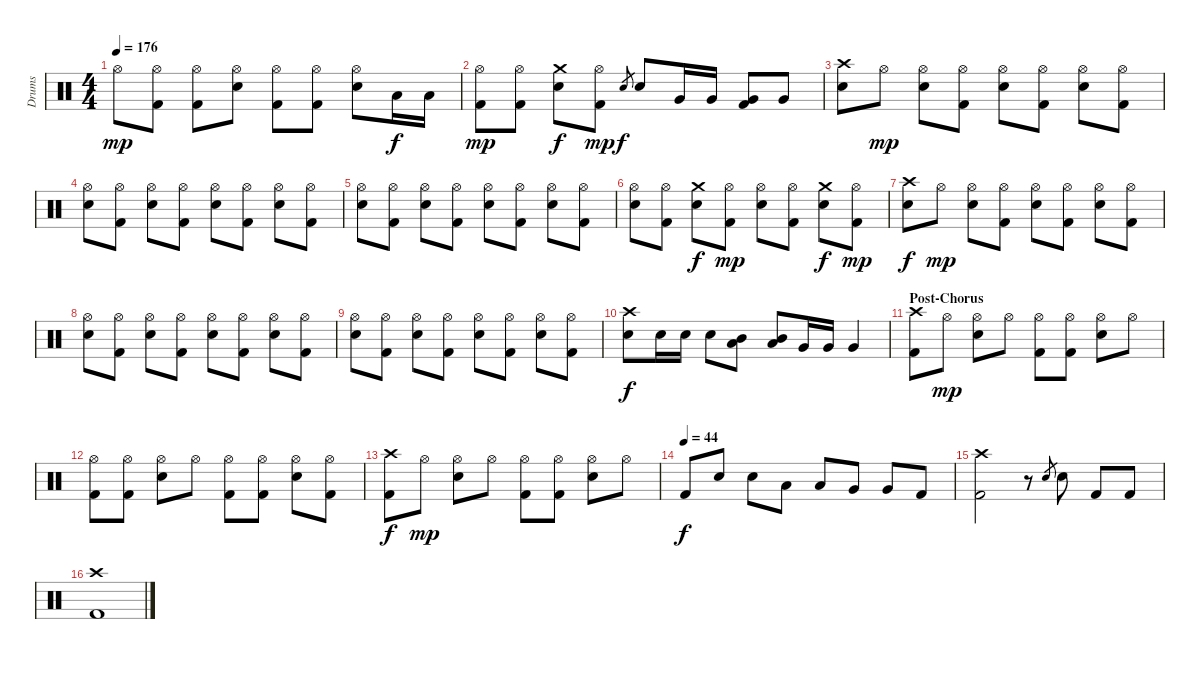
\track ("Drums" "Drums") {instrument percussion}
\staff {score}
\articulation defaults
\ts (4 4)
\tempo 176
\clef neutral
\ks c "Hi-Hat (open)".8{dy mp}
("Hi-Hat (open)" "Kick (hit) 2").8 ("Hi-Hat (open)" "Kick (hit) 2").8 ("Hi-Hat (open)" "Electric Snare (hit)").8 ("Hi-Hat (open)" "Kick (hit) 2").8 ("Hi-Hat (open)" "Kick (hit) 2").8 ("Hi-Hat (open)" "Electric Snare (hit)").8 "Low Tom (hit)".16{dy f} "Low Tom (hit)".16 |
("Hi-Hat (open)" "Kick (hit) 2").8{dy mp} ("Hi-Hat (open)" "Kick (hit) 2").8 ("Crash medium (hit)" "Electric Snare (hit)").8{dy f} ("Hi-Hat (open)" "Kick (hit) 2").8{dy mp} "Electric Snare (hit)".8{gr dy f} "Electric Snare (hit)".8 "Very Low Tom (hit)".16 "Very Low Tom (hit)".16 ("Very Low Tom (hit)" "Kick (hit) 2").8 "Very Low Tom (hit)".8 |
("Crash high (hit)" "Electric Snare (hit)").8 "Hi-Hat (open)".8{dy mp} ("Hi-Hat (open)" "Electric Snare (hit)").8 ("Hi-Hat (open)" "Kick (hit) 2").8 ("Hi-Hat (open)" "Electric Snare (hit)").8 ("Hi-Hat (open)" "Kick (hit) 2").8 ("Hi-Hat (open)" "Electric Snare (hit)").8 ("Hi-Hat (open)" "Kick (hit) 2").8 |
("Hi-Hat (open)" "Electric Snare (hit)").8 ("Hi-Hat (open)" "Kick (hit) 2").8 ("Hi-Hat (open)" "Electric Snare (hit)").8 ("Hi-Hat (open)" "Kick (hit) 2").8 ("Hi-Hat (open)" "Electric Snare (hit)").8 ("Hi-Hat (open)" "Kick (hit) 2").8 ("Hi-Hat (open)" "Electric Snare (hit)").8 ("Hi-Hat (open)" "Kick (hit) 2").8 |
("Hi-Hat (open)" "Electric Snare (hit)").8 ("Hi-Hat (open)" "Kick (hit) 2").8 ("Hi-Hat (open)" "Electric Snare (hit)").8 ("Hi-Hat (open)" "Kick (hit) 2").8 ("Hi-Hat (open)" "Electric Snare (hit)").8 ("Hi-Hat (open)" "Kick (hit) 2").8 ("Hi-Hat (open)" "Electric Snare (hit)").8 ("Hi-Hat (open)" "Kick (hit) 2").8 |
("Hi-Hat (open)" "Electric Snare (hit)").8 ("Hi-Hat (open)" "Kick (hit) 2").8 ("Crash medium (hit)" "Electric Snare (hit)").8{dy f} ("Hi-Hat (open)" "Kick (hit) 2").8{dy mp} ("Hi-Hat (open)" "Electric Snare (hit)").8 ("Hi-Hat (open)" "Kick (hit) 2").8 ("Crash medium (hit)" "Electric Snare (hit)").8{dy f} ("Hi-Hat (open)" "Kick (hit) 2").8{dy mp} |
("Crash high (hit)" "Electric Snare (hit)").8{dy f} "Hi-Hat (open)".8{dy mp} ("Hi-Hat (open)" "Electric Snare (hit)").8 ("Hi-Hat (open)" "Kick (hit) 2").8 ("Hi-Hat (open)" "Electric Snare (hit)").8 ("Hi-Hat (open)" "Kick (hit) 2").8 ("Hi-Hat (open)" "Electric Snare (hit)").8 ("Hi-Hat (open)" "Kick (hit) 2").8 |
("Hi-Hat (open)" "Electric Snare (hit)").8 ("Hi-Hat (open)" "Kick (hit) 2").8 ("Hi-Hat (open)" "Electric Snare (hit)").8 ("Hi-Hat (open)" "Kick (hit) 2").8 ("Hi-Hat (open)" "Electric Snare (hit)").8 ("Hi-Hat (open)" "Kick (hit) 2").8 ("Hi-Hat (open)" "Electric Snare (hit)").8 ("Hi-Hat (open)" "Kick (hit) 2").8 |
("Hi-Hat (open)" "Electric Snare (hit)").8 ("Hi-Hat (open)" "Kick (hit) 2").8 ("Hi-Hat (open)" "Electric Snare (hit)").8 ("Hi-Hat (open)" "Kick (hit) 2").8 ("Hi-Hat (open)" "Electric Snare (hit)").8 ("Hi-Hat (open)" "Kick (hit) 2").8 ("Hi-Hat (open)" "Electric Snare (hit)").8 ("Hi-Hat (open)" "Kick (hit) 2").8 |
("Crash high (hit)" "Electric Snare (hit)").8{dy f} "Electric Snare (hit)".16 "Electric Snare (hit)".16 "Electric Snare (hit)".8 ("Mid Tom (hit)" "Low Tom (hit)").8 ("Mid Tom (hit)" "Low Tom (hit)").8 "Very Low Tom (hit)".16 "Very Low Tom (hit)".16 "Very Low Tom (hit)".4 |
\section ("" "Post-Chorus")
("Crash high (hit)" "Kick (hit) 2").8 "Hi-Hat (open)".8{dy mp} ("Hi-Hat (open)" "Electric Snare (hit)").8 "Hi-Hat (open)".8 ("Hi-Hat (open)" "Kick (hit) 2").8 ("Hi-Hat (open)" "Kick (hit) 2").8 ("Hi-Hat (open)" "Electric Snare (hit)").8 "Hi-Hat (open)".8 |
("Hi-Hat (open)" "Kick (hit) 2").8 ("Hi-Hat (open)" "Kick (hit) 2").8 ("Hi-Hat (open)" "Electric Snare (hit)").8 "Hi-Hat (open)".8 ("Hi-Hat (open)" "Kick (hit) 2").8 ("Hi-Hat (open)" "Kick (hit) 2").8 ("Hi-Hat (open)" "Electric Snare (hit)").8 ("Hi-Hat (open)" "Kick (hit) 2").8 |
("Crash high (hit)" "Kick (hit) 2").8{dy f} "Hi-Hat (open)".8{dy mp} ("Hi-Hat (open)" "Electric Snare (hit)").8 "Hi-Hat (open)".8 ("Hi-Hat (open)" "Kick (hit) 2").8 ("Hi-Hat (open)" "Kick (hit) 2").8 ("Hi-Hat (open)" "Electric Snare (hit)").8 "Hi-Hat (open)".8 |
\tempo (44)
"Kick (hit) 2".8{dy f} "Electric Snare (hit)".8 "Electric Snare (hit)".8 "Low Tom (hit)".8 "Low Tom (hit)".8 "Very Low Tom (hit)".8 "Very Low Tom (hit)".8 "Kick (hit) 2".8 |
("Crash high (hit)" "Kick (hit) 2").2 r.8 "Electric Snare (hit)".8{gr} "Electric Snare (hit)".8 "Kick (hit) 2".8 "Kick (hit) 2".8 |
("Crash high (hit)" "Kick (hit) 2").1
